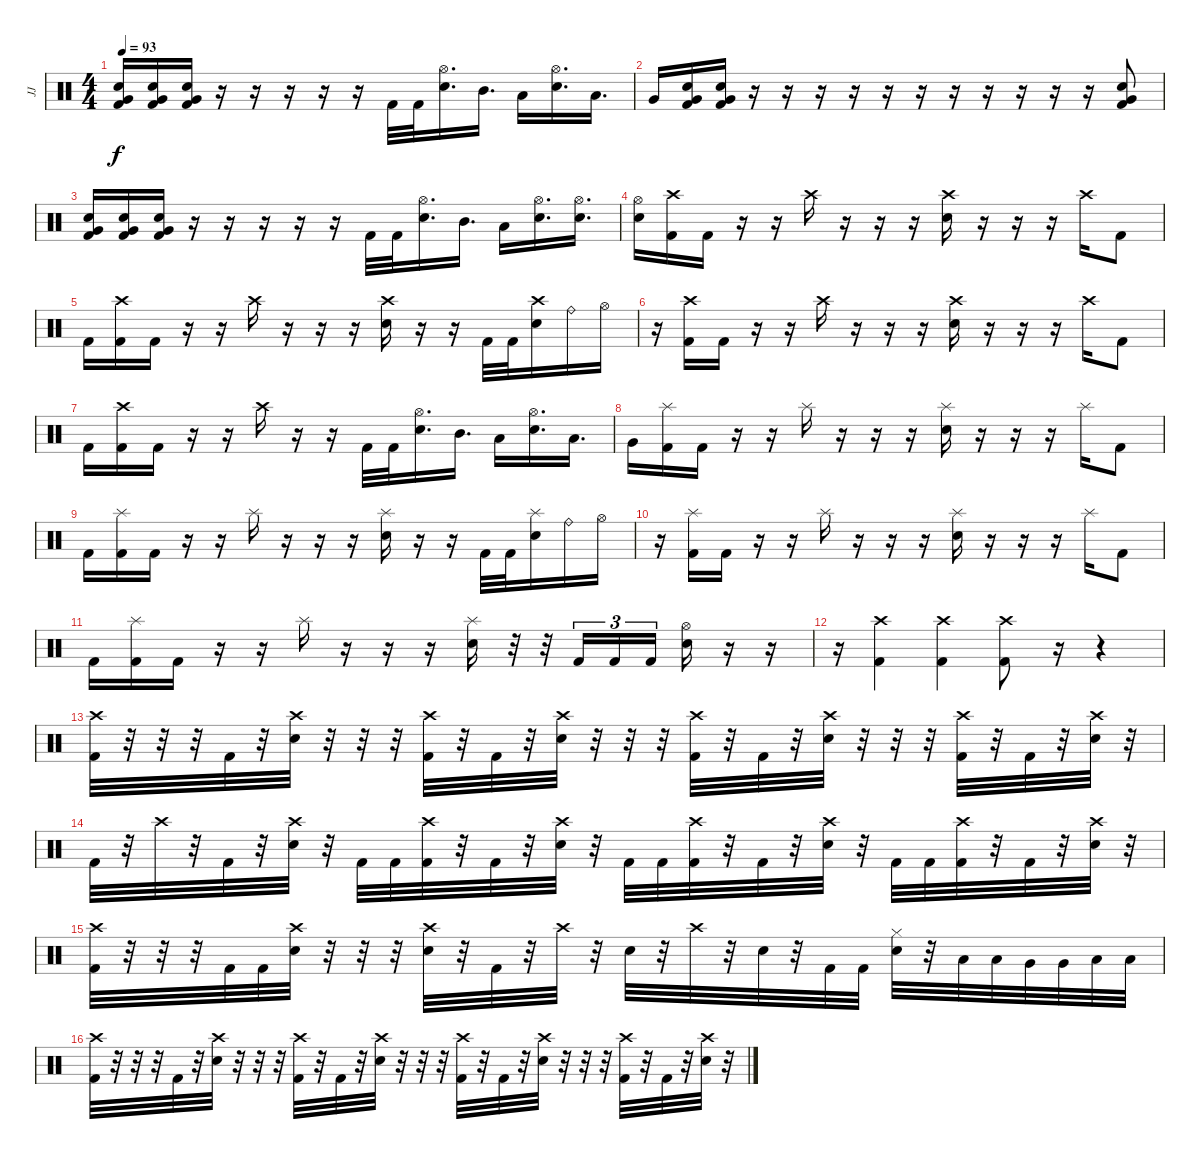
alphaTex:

\track ("JJ" "JJ") {instrument percussion}
\staff {score}
\articulation defaults
\ts (4 4)
\tempo 93
\clef neutral
\ks c
("Very Low Tom (hit)" "Electric Snare (hit)" "Kick (hit) 2").16{dy f} ("Very Low Tom (hit)" "Electric Snare (hit)" "Kick (hit) 2").16 ("Very Low Tom (hit)" "Electric Snare (hit)" "Kick (hit) 2").16 r.16 r.16 r.16 r.16 r.16 "Kick (hit) 2".32 "Kick (hit) 2".32 ("Hi-Hat (open)" "Electric Snare (hit)").16{d} "Mid Tom (hit)".16{d} "Low Tom (hit)".16 ("Hi-Hat (open)" "Electric Snare (hit)").16{d} "Low Tom (hit)".16{d} |
"Very Low Tom (hit)".16 ("Very Low Tom (hit)" "Electric Snare (hit)" "Kick (hit) 2").16 ("Very Low Tom (hit)" "Electric Snare (hit)" "Kick (hit) 2").16 r.16 r.16 r.16 r.16 r.16 r.16 r.16 r.16 r.16 r.16 r.16 ("Very Low Tom (hit)" "Electric Snare (hit)" "Kick (hit) 2").8 |
("Very Low Tom (hit)" "Electric Snare (hit)" "Kick (hit) 2").16 ("Very Low Tom (hit)" "Electric Snare (hit)" "Kick (hit) 2").16 ("Very Low Tom (hit)" "Electric Snare (hit)" "Kick (hit) 2").16 r.16 r.16 r.16 r.16 r.16 "Kick (hit) 2".32 "Kick (hit) 2".32 ("Hi-Hat (open)" "Electric Snare (hit)").16{d} "Mid Tom (hit)".16{d} "Low Tom (hit)".16 ("Hi-Hat (open)" "Electric Snare (hit)").16{d} ("Hi-Hat (open)" "Electric Snare (hit)").16{d} |
("Hi-Hat (open)" "Electric Snare (hit)").16 ("Crash high (hit)" "Kick (hit) 2").16 "Kick (hit) 2".16 r.16 r.16 "Crash high (hit)".16 r.16 r.16 r.16 ("Crash high (hit)" "Electric Snare (hit)").16 r.16 r.16 r.16 "Crash high (hit)".16 "Kick (hit) 2".8 |
"Kick (hit) 2".16 ("Crash high (hit)" "Kick (hit) 2").16 "Kick (hit) 2".16 r.16 r.16 "Crash high (hit)".16 r.16 r.16 r.16 ("Crash high (hit)" "Electric Snare (hit)").16 r.16 r.16 "Kick (hit) 2".32 "Kick (hit) 2".32 ("Crash high (hit)" "Electric Snare (hit)").16 "Ride (bell)".16 "Hi-Hat (open)".16 |
r.16 ("Crash high (hit)" "Kick (hit) 2").16 "Kick (hit) 2".16 r.16 r.16 "Crash high (hit)".16 r.16 r.16 r.16 ("Crash high (hit)" "Electric Snare (hit)").16 r.16 r.16 r.16 "Crash high (hit)".16 "Kick (hit) 2".8 |
"Kick (hit) 2".16 ("Crash high (hit)" "Kick (hit) 2").16 "Kick (hit) 2".16 r.16 r.16 "Crash high (hit)".16 r.16 r.16 "Kick (hit) 2".32 "Kick (hit) 2".32 ("Hi-Hat (open)" "Electric Snare (hit)").16{d} "Mid Tom (hit)".16{d} "Low Tom (hit)".16 ("Hi-Hat (open)" "Electric Snare (hit)").16{d} "Low Tom (hit)".16{d} |
"Very Low Tom (hit)".16 ("Splash (hit)" "Kick (hit) 2").16 "Kick (hit) 2".16 r.16 r.16 "Splash (hit)".16 r.16 r.16 r.16 ("Splash (hit)" "Electric Snare (hit)").16 r.16 r.16 r.16 "Splash (hit)".16 "Kick (hit) 2".8 |
"Kick (hit) 2".16 ("Splash (hit)" "Kick (hit) 2").16 "Kick (hit) 2".16 r.16 r.16 "Splash (hit)".16 r.16 r.16 r.16 ("Splash (hit)" "Electric Snare (hit)").16 r.16 r.16 "Kick (hit) 2".32 "Kick (hit) 2".32 ("Splash (hit)" "Electric Snare (hit)").16 "Ride (bell)".16 "Hi-Hat (open)".16 |
r.16 ("Splash (hit)" "Kick (hit) 2").16 "Kick (hit) 2".16 r.16 r.16 "Splash (hit)".16 r.16 r.16 r.16 ("Splash (hit)" "Electric Snare (hit)").16 r.16 r.16 r.16 "Splash (hit)".16 "Kick (hit) 2".8 |
"Kick (hit) 2".16 ("Splash (hit)" "Kick (hit) 2").16 "Kick (hit) 2".16 r.16 r.16 "Splash (hit)".16 r.16 r.16 r.16 ("Splash (hit)" "Electric Snare (hit)").16 r.32 r.32 "Kick (hit) 2".16{tu (3 2)} "Kick (hit) 2".16{tu (3 2)} "Kick (hit) 2".16{tu (3 2)} ("Hi-Hat (open)" "Electric Snare (hit)").16 r.16 r.16 |
r.16 ("Crash high (hit)" "Kick (hit) 2").4 ("Crash high (hit)" "Kick (hit) 2").4 ("Crash high (hit)" "Kick (hit) 2").8 r.16{volume 0} r.4 |
("Crash high (hit)" "Kick (hit) 2").32{volume 16} r.32 r.32 r.32 "Kick (hit) 2".32 r.32 ("Crash high (hit)" "Electric Snare (hit)").32 r.32 r.32 r.32 ("Crash high (hit)" "Kick (hit) 2").32 r.32 "Kick (hit) 2".32 r.32 ("Crash high (hit)" "Electric Snare (hit)").32 r.32 r.32 r.32 ("Crash high (hit)" "Kick (hit) 2").32 r.32 "Kick (hit) 2".32 r.32 ("Crash high (hit)" "Electric Snare (hit)").32 r.32 r.32 r.32 ("Crash high (hit)" "Kick (hit) 2").32 r.32 "Kick (hit) 2".32 r.32 ("Crash high (hit)" "Electric Snare (hit)").32 r.32 |
"Kick (hit) 2".32{volume 16} r.32 "Crash high (hit)".32 r.32 "Kick (hit) 2".32 r.32 ("Crash high (hit)" "Electric Snare (hit)").32 r.32 "Kick (hit) 2".32 "Kick (hit) 2".32 ("Crash high (hit)" "Kick (hit) 2").32 r.32 "Kick (hit) 2".32 r.32 ("Crash high (hit)" "Electric Snare (hit)").32 r.32 "Kick (hit) 2".32 "Kick (hit) 2".32 ("Crash high (hit)" "Kick (hit) 2").32 r.32 "Kick (hit) 2".32 r.32 ("Crash high (hit)" "Electric Snare (hit)").32 r.32 "Kick (hit) 2".32 "Kick (hit) 2".32 ("Crash high (hit)" "Kick (hit) 2").32 r.32 "Kick (hit) 2".32 r.32 ("Crash high (hit)" "Electric Snare (hit)").32 r.32 |
("Crash high (hit)" "Kick (hit) 2").32 r.32 r.32 r.32 "Kick (hit) 2".32 "Kick (hit) 2".32 ("Crash high (hit)" "Electric Snare (hit)").32 r.32 r.32 r.32 ("Crash high (hit)" "Electric Snare (hit)").32 r.32 "Kick (hit) 2".32 r.32 "Crash high (hit)".32 r.32 "Electric Snare (hit)".32 r.32 "Crash high (hit)".32 r.32 "Electric Snare (hit)".32 r.32 "Kick (hit) 2".32 "Kick (hit) 2".32 ("Hi-Hat (closed)" "Electric Snare (hit)").32 r.32 "Low Tom (hit)".32 "Low Tom (hit)".32 "Very Low Tom (hit)".32 "Very Low Tom (hit)".32 "Low Floor Tom (hit)".32 "Low Floor Tom (hit)".32 |
("Crash high (hit)" "Kick (hit) 2").32 r.32 r.32 r.32 "Kick (hit) 2".32 r.32 ("Crash high (hit)" "Electric Snare (hit)").32 r.32 r.32 r.32 ("Crash high (hit)" "Kick (hit) 2").32 r.32 "Kick (hit) 2".32 r.32 ("Crash high (hit)" "Electric Snare (hit)").32 r.32 r.32 r.32 ("Crash high (hit)" "Kick (hit) 2").32 r.32 "Kick (hit) 2".32 r.32 ("Crash high (hit)" "Electric Snare (hit)").32 r.32 r.32 r.32 ("Crash high (hit)" "Kick (hit) 2").32 r.32 "Kick (hit) 2".32 r.32 ("Crash high (hit)" "Electric Snare (hit)").32 r.32
